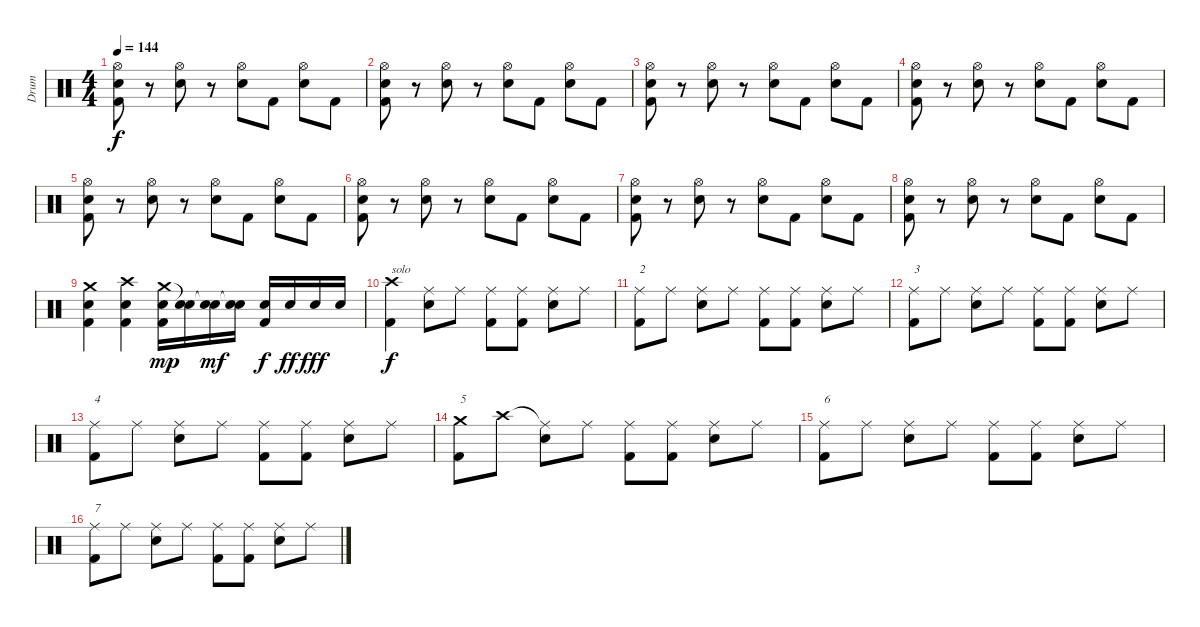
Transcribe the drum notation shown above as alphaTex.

\track ("Drum" "Drum") {instrument percussion}
\staff {score}
\articulation defaults
\ts (4 4)
\tempo 144
\clef neutral
\ks c
("Hi-Hat (open)" "Electric Snare (hit)" "Kick (hit) 2").8{dy f} r.8 ("Hi-Hat (open)" "Electric Snare (hit)").8 r.8 ("Hi-Hat (open)" "Electric Snare (hit)").8 "Kick (hit) 2".8 ("Hi-Hat (open)" "Electric Snare (hit)").8 "Kick (hit) 2".8 |
("Hi-Hat (open)" "Electric Snare (hit)" "Kick (hit) 2").8 r.8 ("Hi-Hat (open)" "Electric Snare (hit)").8 r.8 ("Hi-Hat (open)" "Electric Snare (hit)").8 "Kick (hit) 2".8 ("Hi-Hat (open)" "Electric Snare (hit)").8 "Kick (hit) 2".8 |
("Hi-Hat (open)" "Electric Snare (hit)" "Kick (hit) 2").8 r.8 ("Hi-Hat (open)" "Electric Snare (hit)").8 r.8 ("Hi-Hat (open)" "Electric Snare (hit)").8 "Kick (hit) 2".8 ("Hi-Hat (open)" "Electric Snare (hit)").8 "Kick (hit) 2".8 |
("Hi-Hat (open)" "Electric Snare (hit)" "Kick (hit) 2").8 r.8 ("Hi-Hat (open)" "Electric Snare (hit)").8 r.8 ("Hi-Hat (open)" "Electric Snare (hit)").8 "Kick (hit) 2".8 ("Hi-Hat (open)" "Electric Snare (hit)").8 "Kick (hit) 2".8 |
("Hi-Hat (open)" "Electric Snare (hit)" "Kick (hit) 2").8 r.8 ("Hi-Hat (open)" "Electric Snare (hit)").8 r.8 ("Hi-Hat (open)" "Electric Snare (hit)").8 "Kick (hit) 2".8 ("Hi-Hat (open)" "Electric Snare (hit)").8 "Kick (hit) 2".8 |
("Hi-Hat (open)" "Electric Snare (hit)" "Kick (hit) 2").8 r.8 ("Hi-Hat (open)" "Electric Snare (hit)").8 r.8 ("Hi-Hat (open)" "Electric Snare (hit)").8 "Kick (hit) 2".8 ("Hi-Hat (open)" "Electric Snare (hit)").8 "Kick (hit) 2".8 |
("Hi-Hat (open)" "Electric Snare (hit)" "Kick (hit) 2").8 r.8 ("Hi-Hat (open)" "Electric Snare (hit)").8 r.8 ("Hi-Hat (open)" "Electric Snare (hit)").8 "Kick (hit) 2".8 ("Hi-Hat (open)" "Electric Snare (hit)").8 "Kick (hit) 2".8 |
("Hi-Hat (open)" "Electric Snare (hit)" "Kick (hit) 2").8 r.8 ("Hi-Hat (open)" "Electric Snare (hit)").8 r.8 ("Hi-Hat (open)" "Electric Snare (hit)").8 "Kick (hit) 2".8 ("Hi-Hat (open)" "Electric Snare (hit)").8 "Kick (hit) 2".8 |
("Crash medium (hit)" "Electric Snare (hit)" "Kick (hit) 2").4 ("Crash high (hit)" "Electric Snare (hit)" "Kick (hit) 2").4 ("Crash medium (hit)" "Electric Snare (hit)" "Kick (hit) 2").16{dy mp} ("Snare (hit)"{t} "Electric Snare (hit)").16 ("Snare (hit)"{t} "Electric Snare (hit)").16{dy mf} ("Snare (hit)"{t} "Electric Snare (hit)").16 ("Electric Snare (hit)" "Kick (hit) 2").16{dy f} "Electric Snare (hit)".16{dy ff} "Electric Snare (hit)".16{dy fff} "Electric Snare (hit)".16 |
("Crash high (hit)" "Kick (hit) 2").4{txt "solo" dy f} ("Ride (middle)" "Electric Snare (hit)").8 "Ride (middle)".8 ("Ride (middle)" "Kick (hit) 2").8 ("Ride (middle)" "Kick (hit) 2").8 ("Ride (middle)" "Electric Snare (hit)").8 "Ride (middle)".8 |
("Ride (middle)" "Kick (hit) 2").8{txt "2"} "Ride (middle)".8 ("Ride (middle)" "Electric Snare (hit)").8 "Ride (middle)".8 ("Ride (middle)" "Kick (hit) 2").8 ("Ride (middle)" "Kick (hit) 2").8 ("Ride (middle)" "Electric Snare (hit)").8 "Ride (middle)".8 |
("Ride (middle)" "Kick (hit) 2").8{txt "3"} "Ride (middle)".8 ("Ride (middle)" "Electric Snare (hit)").8 "Ride (middle)".8 ("Ride (middle)" "Kick (hit) 2").8 ("Ride (middle)" "Kick (hit) 2").8 ("Ride (middle)" "Electric Snare (hit)").8 "Ride (middle)".8 |
("Ride (middle)" "Kick (hit) 2").8{txt "4"} "Ride (middle)".8 ("Ride (middle)" "Electric Snare (hit)").8 "Ride (middle)".8 ("Ride (middle)" "Kick (hit) 2").8 ("Ride (middle)" "Kick (hit) 2").8 ("Ride (middle)" "Electric Snare (hit)").8 "Ride (middle)".8 |
("Crash medium (hit)" "Kick (hit) 2").8{txt "5"} "Crash high (hit)".8 ("Ride (middle)"{t} "Electric Snare (hit)").8 "Ride (middle)".8 ("Ride (middle)" "Kick (hit) 2").8 ("Ride (middle)" "Kick (hit) 2").8 ("Ride (middle)" "Electric Snare (hit)").8 "Ride (middle)".8 |
("Ride (middle)" "Kick (hit) 2").8{txt "6"} "Ride (middle)".8 ("Ride (middle)" "Electric Snare (hit)").8 "Ride (middle)".8 ("Ride (middle)" "Kick (hit) 2").8 ("Ride (middle)" "Kick (hit) 2").8 ("Ride (middle)" "Electric Snare (hit)").8 "Ride (middle)".8 |
("Ride (middle)" "Kick (hit) 2").8{txt "7"} "Ride (middle)".8 ("Ride (middle)" "Electric Snare (hit)").8 "Ride (middle)".8 ("Ride (middle)" "Kick (hit) 2").8 ("Ride (middle)" "Kick (hit) 2").8 ("Ride (middle)" "Electric Snare (hit)").8 "Ride (middle)".8
